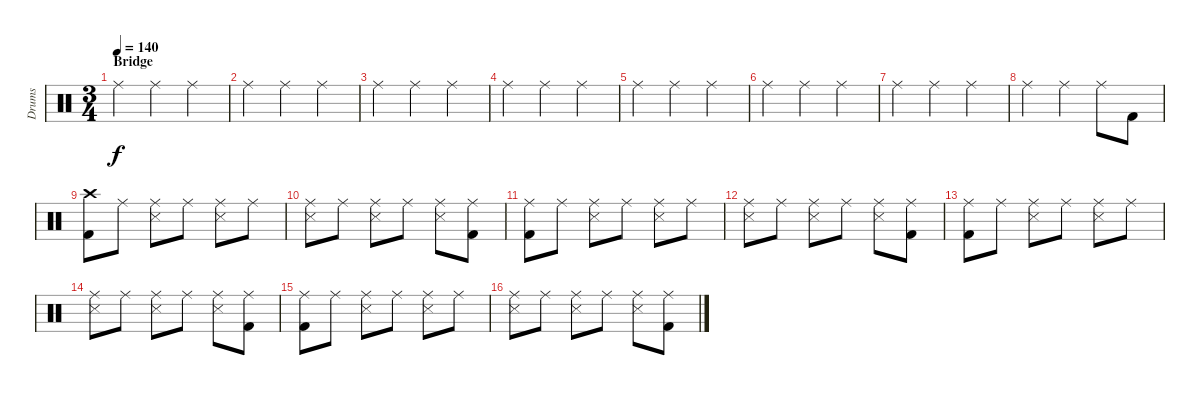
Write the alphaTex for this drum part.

\track ("Drums" "Drums") {instrument percussion}
\staff {score}
\articulation defaults
\ts (3 4)
\section ("" "Bridge")
\tempo 140
\clef neutral
\ks c "Ride (middle)".4{dy f} "Ride (middle)".4 "Ride (middle)".4
|
"Ride (middle)".4 "Ride (middle)".4 "Ride (middle)".4 |
"Ride (middle)".4 "Ride (middle)".4 "Ride (middle)".4 |
"Ride (middle)".4 "Ride (middle)".4 "Ride (middle)".4 |
"Ride (middle)".4 "Ride (middle)".4 "Ride (middle)".4 |
"Ride (middle)".4 "Ride (middle)".4 "Ride (middle)".4 |
"Ride (middle)".4 "Ride (middle)".4 "Ride (middle)".4 |
"Ride (middle)".4 "Ride (middle)".4 "Ride (middle)".8 "Kick (hit) 2".8 |
("Kick (hit) 2" "Crash high (hit)").8 "Ride (middle)".8 ("Snare (side stick) 3" "Ride (middle)").8 "Ride (middle)".8 ("Snare (side stick) 3" "Ride (middle)").8 "Ride (middle)".8 |
("Snare (side stick) 3" "Ride (middle)").8 "Ride (middle)".8 ("Snare (side stick) 3" "Ride (middle)").8 "Ride (middle)".8 ("Snare (side stick) 3" "Ride (middle)").8 ("Kick (hit) 2" "Ride (middle)").8 |
("Kick (hit) 2" "Ride (middle)").8 "Ride (middle)".8 ("Snare (side stick) 3" "Ride (middle)").8 "Ride (middle)".8 ("Snare (side stick) 3" "Ride (middle)").8 "Ride (middle)".8 |
("Snare (side stick) 3" "Ride (middle)").8 "Ride (middle)".8 ("Snare (side stick) 3" "Ride (middle)").8 "Ride (middle)".8 ("Snare (side stick) 3" "Ride (middle)").8 ("Kick (hit) 2" "Ride (middle)").8 |
("Kick (hit) 2" "Ride (middle)").8 "Ride (middle)".8 ("Snare (side stick) 3" "Ride (middle)").8 "Ride (middle)".8 ("Snare (side stick) 3" "Ride (middle)").8 "Ride (middle)".8 |
("Snare (side stick) 3" "Ride (middle)").8 "Ride (middle)".8 ("Snare (side stick) 3" "Ride (middle)").8 "Ride (middle)".8 ("Snare (side stick) 3" "Ride (middle)").8 ("Kick (hit) 2" "Ride (middle)").8 |
("Kick (hit) 2" "Ride (middle)").8 "Ride (middle)".8 ("Snare (side stick) 3" "Ride (middle)").8 "Ride (middle)".8 ("Snare (side stick) 3" "Ride (middle)").8 "Ride (middle)".8 |
("Snare (side stick) 3" "Ride (middle)").8 "Ride (middle)".8 ("Snare (side stick) 3" "Ride (middle)").8 "Ride (middle)".8 ("Snare (side stick) 3" "Ride (middle)").8 ("Kick (hit) 2" "Ride (middle)").8
